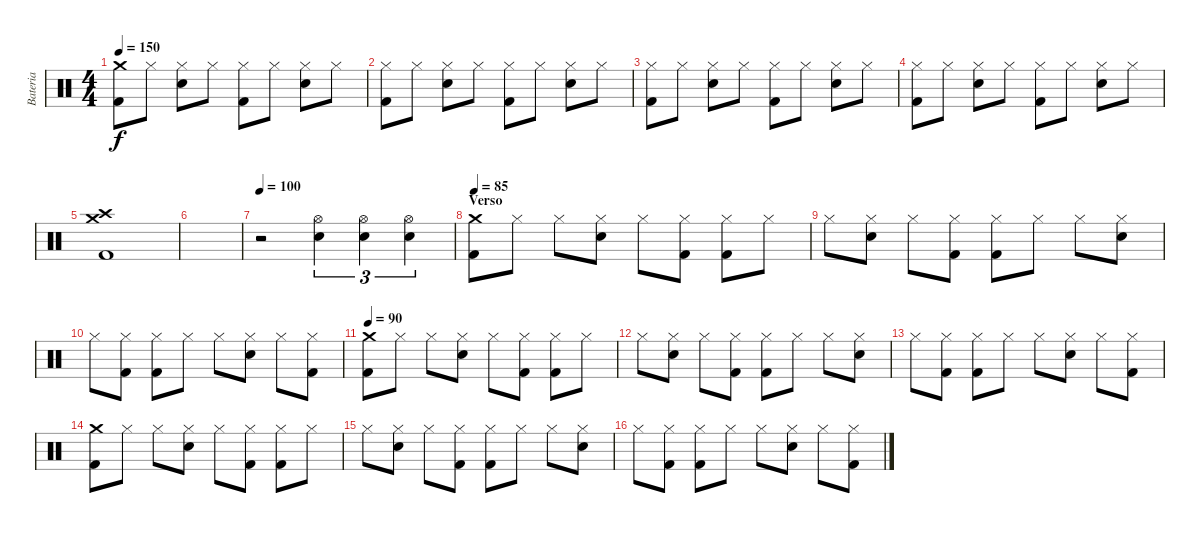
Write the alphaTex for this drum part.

\track ("Bateria" "Bateria") {instrument percussion}
\staff {score}
\articulation defaults
\ts (4 4)
\tempo 150
\clef neutral
\ks c
("Crash medium (hit)" "Kick (hit) 2").8{dy f} "Hi-Hat (closed)".8 ("Hi-Hat (closed)" "Snare (hit) 2").8 "Hi-Hat (closed)".8 ("Hi-Hat (closed)" "Kick (hit) 2").8 "Hi-Hat (closed)".8 ("Hi-Hat (closed)" "Snare (hit) 2").8 "Hi-Hat (closed)".8 |
("Hi-Hat (closed)" "Kick (hit) 2").8 "Hi-Hat (closed)".8 ("Hi-Hat (closed)" "Snare (hit) 2").8 "Hi-Hat (closed)".8 ("Hi-Hat (closed)" "Kick (hit) 2").8 "Hi-Hat (closed)".8 ("Hi-Hat (closed)" "Snare (hit) 2").8 "Hi-Hat (closed)".8 |
("Hi-Hat (closed)" "Kick (hit) 2").8 "Hi-Hat (closed)".8 ("Hi-Hat (closed)" "Snare (hit) 2").8 "Hi-Hat (closed)".8 ("Hi-Hat (closed)" "Kick (hit) 2").8 "Hi-Hat (closed)".8 ("Hi-Hat (closed)" "Snare (hit) 2").8 "Hi-Hat (closed)".8 |
("Hi-Hat (closed)" "Kick (hit) 2").8 "Hi-Hat (closed)".8 ("Hi-Hat (closed)" "Snare (hit) 2").8 "Hi-Hat (closed)".8 ("Hi-Hat (closed)" "Kick (hit) 2").8 "Hi-Hat (closed)".8 ("Hi-Hat (closed)" "Snare (hit) 2").8 "Hi-Hat (closed)".8 |
("Crash medium (hit)" "Crash high (hit)" "Kick (hit) 2").1 |
|
\tempo 100
r.2 ("Hi-Hat (open)" "Snare (hit) 2").4{tu (3 2)} ("Hi-Hat (open)" "Snare (hit) 2").4{tu (3 2)} ("Hi-Hat (open)" "Snare (hit) 2").4{tu (3 2)} |
\section ("" "Verso")
\tempo 85
("Crash medium (hit)" "Kick (hit) 2").8 "Hi-Hat (closed)".8 "Hi-Hat (closed)".8 ("Hi-Hat (closed)" "Snare (hit) 2").8 "Hi-Hat (closed)".8 ("Hi-Hat (closed)" "Kick (hit) 2").8 ("Hi-Hat (closed)" "Kick (hit) 2").8 "Hi-Hat (closed)".8 |
"Hi-Hat (closed)".8 ("Hi-Hat (closed)" "Snare (hit) 2").8 "Hi-Hat (closed)".8 ("Hi-Hat (closed)" "Kick (hit) 2").8 ("Hi-Hat (closed)" "Kick (hit) 2").8 "Hi-Hat (closed)".8 "Hi-Hat (closed)".8 ("Hi-Hat (closed)" "Snare (hit) 2").8 |
"Hi-Hat (closed)".8 ("Hi-Hat (closed)" "Kick (hit) 2").8 ("Hi-Hat (closed)" "Kick (hit) 2").8 "Hi-Hat (closed)".8 "Hi-Hat (closed)".8 ("Hi-Hat (closed)" "Snare (hit) 2").8 "Hi-Hat (closed)".8 ("Hi-Hat (closed)" "Kick (hit) 2").8 |
\tempo 90
("Crash medium (hit)" "Kick (hit) 2").8 "Hi-Hat (closed)".8 "Hi-Hat (closed)".8 ("Hi-Hat (closed)" "Snare (hit) 2").8 "Hi-Hat (closed)".8 ("Hi-Hat (closed)" "Kick (hit) 2").8 ("Hi-Hat (closed)" "Kick (hit) 2").8 "Hi-Hat (closed)".8 |
"Hi-Hat (closed)".8 ("Hi-Hat (closed)" "Snare (hit) 2").8 "Hi-Hat (closed)".8 ("Hi-Hat (closed)" "Kick (hit) 2").8 ("Hi-Hat (closed)" "Kick (hit) 2").8 "Hi-Hat (closed)".8 "Hi-Hat (closed)".8 ("Hi-Hat (closed)" "Snare (hit) 2").8 |
"Hi-Hat (closed)".8 ("Hi-Hat (closed)" "Kick (hit) 2").8 ("Hi-Hat (closed)" "Kick (hit) 2").8 "Hi-Hat (closed)".8 "Hi-Hat (closed)".8 ("Hi-Hat (closed)" "Snare (hit) 2").8 "Hi-Hat (closed)".8 ("Hi-Hat (closed)" "Kick (hit) 2").8 |
("Crash medium (hit)" "Kick (hit) 2").8 "Hi-Hat (closed)".8 "Hi-Hat (closed)".8 ("Hi-Hat (closed)" "Snare (hit) 2").8 "Hi-Hat (closed)".8 ("Hi-Hat (closed)" "Kick (hit) 2").8 ("Hi-Hat (closed)" "Kick (hit) 2").8 "Hi-Hat (closed)".8 |
"Hi-Hat (closed)".8 ("Hi-Hat (closed)" "Snare (hit) 2").8 "Hi-Hat (closed)".8 ("Hi-Hat (closed)" "Kick (hit) 2").8 ("Hi-Hat (closed)" "Kick (hit) 2").8 "Hi-Hat (closed)".8 "Hi-Hat (closed)".8 ("Hi-Hat (closed)" "Snare (hit) 2").8 |
"Hi-Hat (closed)".8 ("Hi-Hat (closed)" "Kick (hit) 2").8 ("Hi-Hat (closed)" "Kick (hit) 2").8 "Hi-Hat (closed)".8 "Hi-Hat (closed)".8 ("Hi-Hat (closed)" "Snare (hit) 2").8 "Hi-Hat (closed)".8 ("Hi-Hat (closed)" "Kick (hit) 2").8
